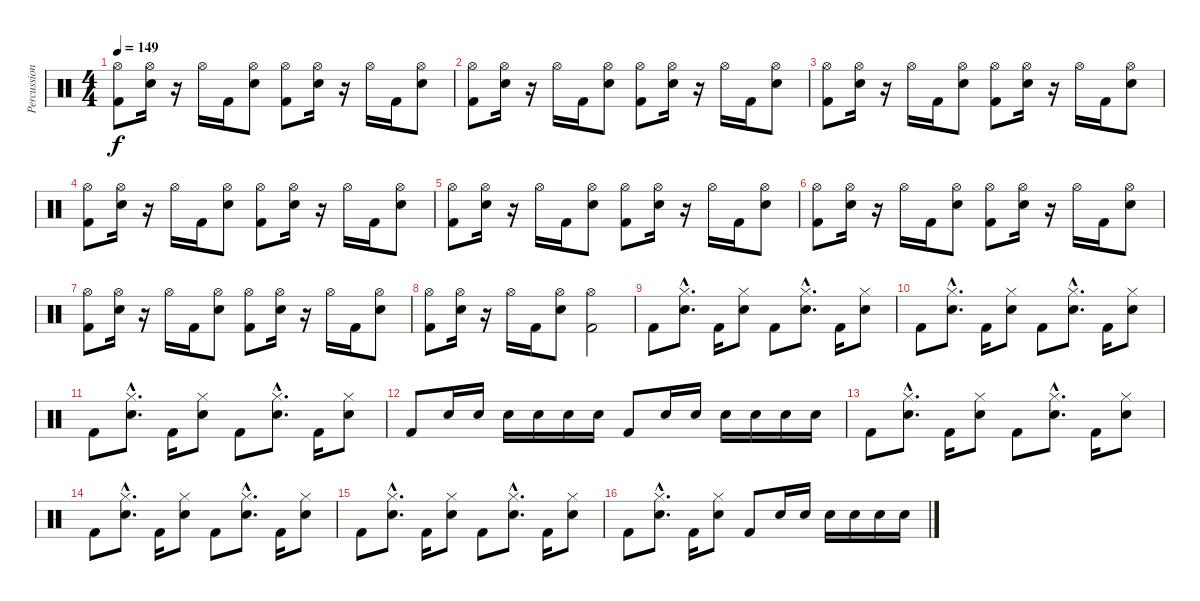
\track ("Percussion" "Percussion") {instrument percussion}
\staff {score}
\articulation defaults
\ts (4 4)
\tempo 149
\clef neutral
\ks c
("Kick (hit) 2" "Hi-Hat (open)").8{dy f} ("Snare (hit) 2" "Hi-Hat (open)").16 r.16 "Hi-Hat (open)".16 "Kick (hit) 2".16 ("Snare (hit) 2" "Hi-Hat (open)").8 ("Kick (hit) 2" "Hi-Hat (open)").8 ("Snare (hit) 2" "Hi-Hat (open)").16 r.16 "Hi-Hat (open)".16 "Kick (hit) 2".16 ("Snare (hit) 2" "Hi-Hat (open)").8 |
("Kick (hit) 2" "Hi-Hat (open)").8 ("Snare (hit) 2" "Hi-Hat (open)").16 r.16 "Hi-Hat (open)".16 "Kick (hit) 2".16 ("Snare (hit) 2" "Hi-Hat (open)").8 ("Kick (hit) 2" "Hi-Hat (open)").8 ("Snare (hit) 2" "Hi-Hat (open)").16 r.16 "Hi-Hat (open)".16 "Kick (hit) 2".16 ("Snare (hit) 2" "Hi-Hat (open)").8 |
("Kick (hit) 2" "Hi-Hat (open)").8 ("Snare (hit) 2" "Hi-Hat (open)").16 r.16 "Hi-Hat (open)".16 "Kick (hit) 2".16 ("Snare (hit) 2" "Hi-Hat (open)").8 ("Kick (hit) 2" "Hi-Hat (open)").8 ("Snare (hit) 2" "Hi-Hat (open)").16 r.16 "Hi-Hat (open)".16 "Kick (hit) 2".16 ("Snare (hit) 2" "Hi-Hat (open)").8 |
("Kick (hit) 2" "Hi-Hat (open)").8 ("Snare (hit) 2" "Hi-Hat (open)").16 r.16 "Hi-Hat (open)".16 "Kick (hit) 2".16 ("Snare (hit) 2" "Hi-Hat (open)").8 ("Kick (hit) 2" "Hi-Hat (open)").8 ("Snare (hit) 2" "Hi-Hat (open)").16 r.16 "Hi-Hat (open)".16 "Kick (hit) 2".16 ("Snare (hit) 2" "Hi-Hat (open)").8 |
("Kick (hit) 2" "Hi-Hat (open)").8 ("Snare (hit) 2" "Hi-Hat (open)").16 r.16 "Hi-Hat (open)".16 "Kick (hit) 2".16 ("Snare (hit) 2" "Hi-Hat (open)").8 ("Kick (hit) 2" "Hi-Hat (open)").8 ("Snare (hit) 2" "Hi-Hat (open)").16 r.16 "Hi-Hat (open)".16 "Kick (hit) 2".16 ("Snare (hit) 2" "Hi-Hat (open)").8 |
("Kick (hit) 2" "Hi-Hat (open)").8 ("Snare (hit) 2" "Hi-Hat (open)").16 r.16 "Hi-Hat (open)".16 "Kick (hit) 2".16 ("Snare (hit) 2" "Hi-Hat (open)").8 ("Kick (hit) 2" "Hi-Hat (open)").8 ("Snare (hit) 2" "Hi-Hat (open)").16 r.16 "Hi-Hat (open)".16 "Kick (hit) 2".16 ("Snare (hit) 2" "Hi-Hat (open)").8 |
("Kick (hit) 2" "Hi-Hat (open)").8 ("Snare (hit) 2" "Hi-Hat (open)").16 r.16 "Hi-Hat (open)".16 "Kick (hit) 2".16 ("Snare (hit) 2" "Hi-Hat (open)").8 ("Kick (hit) 2" "Hi-Hat (open)").8 ("Snare (hit) 2" "Hi-Hat (open)").16 r.16 "Hi-Hat (open)".16 "Kick (hit) 2".16 ("Snare (hit) 2" "Hi-Hat (open)").8 |
("Kick (hit) 2" "Hi-Hat (open)").8 ("Snare (hit) 2" "Hi-Hat (open)").16 r.16 "Hi-Hat (open)".16 "Kick (hit) 2".16 ("Snare (hit) 2" "Hi-Hat (open)").8 ("Kick (hit) 2" "Hi-Hat (open)").2 |
"Kick (hit) 2".8 ("Snare (hit) 2"{hac} "Hi-Hat (closed)"{hac}).8{d} "Kick (hit) 2".16 ("Snare (hit) 2" "Hi-Hat (closed)").8 "Kick (hit) 2".8 ("Snare (hit) 2"{hac} "Hi-Hat (closed)"{hac}).8{d} "Kick (hit) 2".16 ("Snare (hit) 2" "Hi-Hat (closed)").8 |
"Kick (hit) 2".8 ("Snare (hit) 2"{hac} "Hi-Hat (closed)"{hac}).8{d} "Kick (hit) 2".16 ("Snare (hit) 2" "Hi-Hat (closed)").8 "Kick (hit) 2".8 ("Snare (hit) 2"{hac} "Hi-Hat (closed)"{hac}).8{d} "Kick (hit) 2".16 ("Snare (hit) 2" "Hi-Hat (closed)").8 |
"Kick (hit) 2".8 ("Snare (hit) 2"{hac} "Hi-Hat (closed)"{hac}).8{d} "Kick (hit) 2".16 ("Snare (hit) 2" "Hi-Hat (closed)").8 "Kick (hit) 2".8 ("Snare (hit) 2"{hac} "Hi-Hat (closed)"{hac}).8{d} "Kick (hit) 2".16 ("Snare (hit) 2" "Hi-Hat (closed)").8 |
"Kick (hit) 2".8 "Snare (hit) 2".16 "Snare (hit) 2".16 "Snare (hit) 2".16 "Snare (hit) 2".16 "Snare (hit) 2".16 "Snare (hit) 2".16 "Kick (hit) 2".8 "Snare (hit) 2".16 "Snare (hit) 2".16 "Snare (hit) 2".16 "Snare (hit) 2".16 "Snare (hit) 2".16 "Snare (hit) 2".16 |
"Kick (hit) 2".8 ("Snare (hit) 2"{hac} "Hi-Hat (closed)"{hac}).8{d} "Kick (hit) 2".16 ("Snare (hit) 2" "Hi-Hat (closed)").8 "Kick (hit) 2".8 ("Snare (hit) 2"{hac} "Hi-Hat (closed)"{hac}).8{d} "Kick (hit) 2".16 ("Snare (hit) 2" "Hi-Hat (closed)").8 |
"Kick (hit) 2".8 ("Snare (hit) 2"{hac} "Hi-Hat (closed)"{hac}).8{d} "Kick (hit) 2".16 ("Snare (hit) 2" "Hi-Hat (closed)").8 "Kick (hit) 2".8 ("Snare (hit) 2"{hac} "Hi-Hat (closed)"{hac}).8{d} "Kick (hit) 2".16 ("Snare (hit) 2" "Hi-Hat (closed)").8 |
"Kick (hit) 2".8 ("Snare (hit) 2"{hac} "Hi-Hat (closed)"{hac}).8{d} "Kick (hit) 2".16 ("Snare (hit) 2" "Hi-Hat (closed)").8 "Kick (hit) 2".8 ("Snare (hit) 2"{hac} "Hi-Hat (closed)"{hac}).8{d} "Kick (hit) 2".16 ("Snare (hit) 2" "Hi-Hat (closed)").8 |
"Kick (hit) 2".8 ("Snare (hit) 2"{hac} "Hi-Hat (closed)"{hac}).8{d} "Kick (hit) 2".16 ("Snare (hit) 2" "Hi-Hat (closed)").8 "Kick (hit) 2".8 "Snare (hit) 2".16 "Snare (hit) 2".16 "Snare (hit) 2".16 "Snare (hit) 2".16 "Snare (hit) 2".16 "Snare (hit) 2".16
